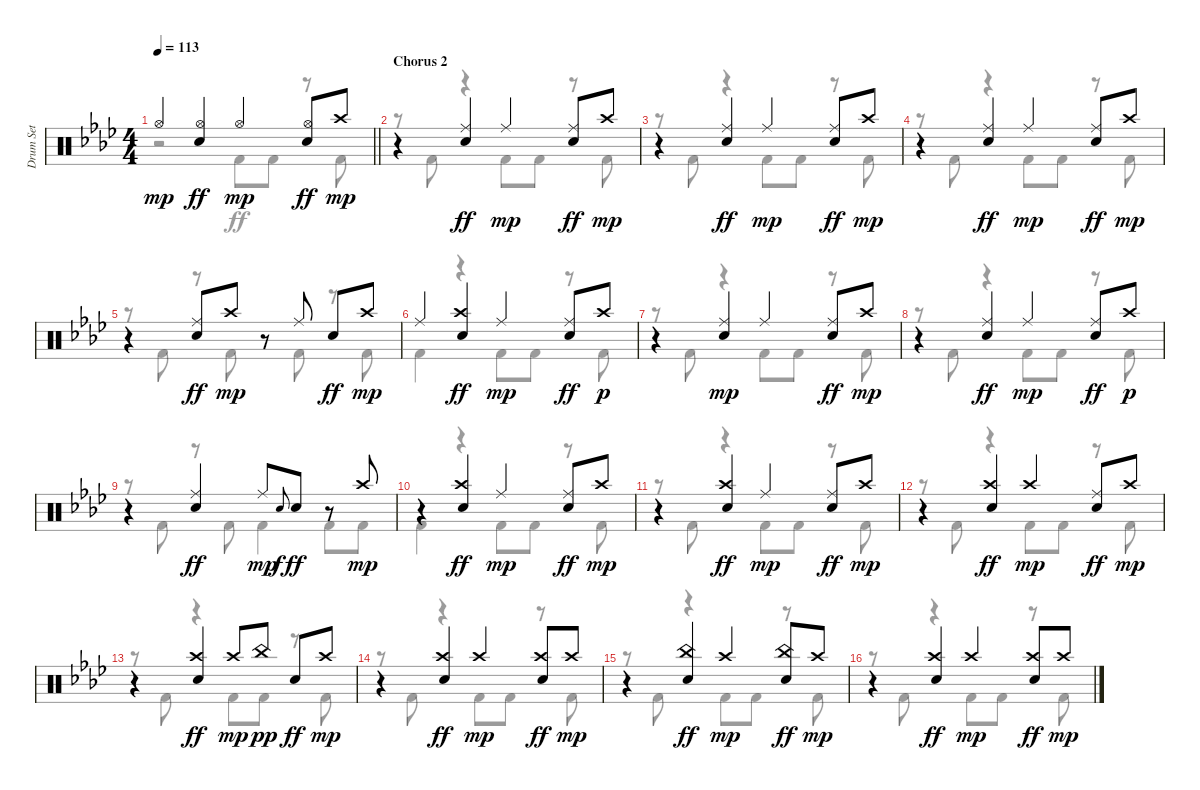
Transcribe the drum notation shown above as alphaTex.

\track ("Drum Set" "Drum Set") {instrument percussion}
\staff {score}
\articulation defaults
\voice
\ts (4 4)
\tempo 113
\clef neutral
\barLineRight lightlight
\ks fminor "Hi-Hat (open)".4{dy mp}
("Hi-Hat (open)" "Electric Snare (hit)").4{dy ff} "Hi-Hat (open)".4{dy mp} ("Hi-Hat (open)" "Electric Snare (hit)").8{dy ff} "Crash high (hit)".8{dy mp} |
\section ("" "Chorus 2")
r.4 ("Ride (middle)" "Electric Snare (hit)").4{dy ff} "Ride (middle)".4{dy mp} ("Ride (middle)" "Electric Snare (hit)").8{dy ff} "Crash high (hit)".8{dy mp} |
r.4 ("Ride (middle)" "Electric Snare (hit)").4{dy ff} "Ride (middle)".4{dy mp} ("Ride (middle)" "Electric Snare (hit)").8{dy ff} "Crash high (hit)".8{dy mp} |
r.4 ("Ride (middle)" "Electric Snare (hit)").4{dy ff} "Ride (middle)".4{dy mp} ("Ride (middle)" "Electric Snare (hit)").8{dy ff} "Crash high (hit)".8{dy mp} |
r.4 ("Ride (middle)" "Electric Snare (hit)").8{dy ff} "Crash high (hit)".8{dy mp} r.8 "Ride (middle)".8 "Electric Snare (hit)".8{dy ff} "Crash high (hit)".8{dy mp} |
"Ride (middle)".4 ("Crash high (hit)" "Electric Snare (hit)").4{dy ff} "Ride (middle)".4{dy mp} ("Ride (middle)" "Electric Snare (hit)").8{dy ff} "Crash high (hit)".8{dy p} |
r.4 ("Electric Snare (hit)" "Ride (middle)").4{dy mp} "Ride (middle)".4 ("Ride (middle)" "Electric Snare (hit)").8{dy ff} "Crash high (hit)".8{dy mp} |
r.4 ("Ride (middle)" "Electric Snare (hit)").4{dy ff} "Ride (middle)".4{dy mp} ("Ride (middle)" "Electric Snare (hit)").8{dy ff} "Crash high (hit)".8{dy p} |
r.4 ("Ride (middle)" "Electric Snare (hit)").4{dy ff} "Ride (middle)".8{dy mp} "Electric Snare (hit)".8{gr onbeat dy f} "Electric Snare (hit)".8{dy ff} r.8 "Crash high (hit)".8{dy mp} |
r.4 ("Crash high (hit)" "Electric Snare (hit)").4{dy ff} "Ride (middle)".4{dy mp} ("Ride (middle)" "Electric Snare (hit)").8{dy ff} "Crash high (hit)".8{dy mp} |
r.4 ("Crash high (hit)" "Electric Snare (hit)").4{dy ff} "Ride (middle)".4{dy mp} ("Ride (middle)" "Electric Snare (hit)").8{dy ff} "Crash high (hit)".8{dy mp} |
r.4 ("Crash high (hit)" "Electric Snare (hit)").4{dy ff} "Crash high (hit)".4{dy mp} ("Ride (middle)" "Electric Snare (hit)").8{dy ff} "Crash high (hit)".8{dy mp} |
r.4 ("Crash high (hit)" "Electric Snare (hit)").4{dy ff} "Crash high (hit)".8{dy mp} "China (hit)".8{dy pp} "Electric Snare (hit)".8{dy ff} "Crash high (hit)".8{dy mp} |
r.4 ("Crash high (hit)" "Electric Snare (hit)").4{dy ff} "Crash high (hit)".4{dy mp} ("Crash high (hit)" "Electric Snare (hit)").8{dy ff} "Crash high (hit)".8{dy mp} |
r.4 ("China (hit)" "Electric Snare (hit)").4{dy ff} "Crash high (hit)".4{dy mp} ("China (hit)" "Electric Snare (hit)").8{dy ff} "Crash high (hit)".8{dy mp} |
r.4 ("Crash high (hit)" "Electric Snare (hit)").4{dy ff} "Crash high (hit)".4{dy mp} ("Crash high (hit)" "Electric Snare (hit)").8{dy ff} "Crash high (hit)".8{dy mp}
\voice
\clef neutral
\ottava regular
\simile none
\barLineRight lightlight
\ks fminor
r.2{dy ff} "Kick (hit) 2".8 "Kick (hit) 2".8 r.8 "Kick (hit) 2".8 |
r.8 "Kick (hit) 2".8 r.4 "Kick (hit) 2".8 "Kick (hit) 2".8 r.8 "Kick (hit) 2".8 |
r.8 "Kick (hit) 2".8 r.4 "Kick (hit) 2".8 "Kick (hit) 2".8 r.8 "Kick (hit) 2".8 |
r.8 "Kick (hit) 2".8 r.4 "Kick (hit) 2".8 "Kick (hit) 2".8 r.8 "Kick (hit) 2".8 |
r.8 "Kick (hit) 2".8 r.8 "Kick (hit) 2".8 r.8 "Kick (hit) 2".8 r.8 "Kick (hit) 2".8 |
"Kick (hit) 2".4 r.4 "Kick (hit) 2".8 "Kick (hit) 2".8 r.8 "Kick (hit) 2".8 |
r.8 "Kick (hit) 2".8 r.4 "Kick (hit) 2".8 "Kick (hit) 2".8 r.8 "Kick (hit) 2".8 |
r.8 "Kick (hit) 2".8 r.4 "Kick (hit) 2".8 "Kick (hit) 2".8 r.8 "Kick (hit) 2".8 |
r.8 "Kick (hit) 2".8 r.8 "Kick (hit) 2".8 "Kick (hit) 2".4 "Kick (hit) 2".8 "Kick (hit) 2".8 |
"Kick (hit) 2".4 r.4 "Kick (hit) 2".8 "Kick (hit) 2".8 r.8 "Kick (hit) 2".8 |
r.8 "Kick (hit) 2".8 r.4 "Kick (hit) 2".8 "Kick (hit) 2".8 r.8 "Kick (hit) 2".8 |
r.8 "Kick (hit) 2".8 r.4 "Kick (hit) 2".8 "Kick (hit) 2".8 r.8 "Kick (hit) 2".8 |
r.8 "Kick (hit) 2".8 r.4 "Kick (hit) 2".8 "Kick (hit) 2".8 r.8 "Kick (hit) 2".8 |
r.8 "Kick (hit) 2".8 r.4 "Kick (hit) 2".8 "Kick (hit) 2".8 r.8 "Kick (hit) 2".8 |
r.8 "Kick (hit) 2".8 r.4 "Kick (hit) 2".8 "Kick (hit) 2".8 r.8 "Kick (hit) 2".8 |
r.8 "Kick (hit) 2".8 r.4 "Kick (hit) 2".8 "Kick (hit) 2".8 r.8 "Kick (hit) 2".8
